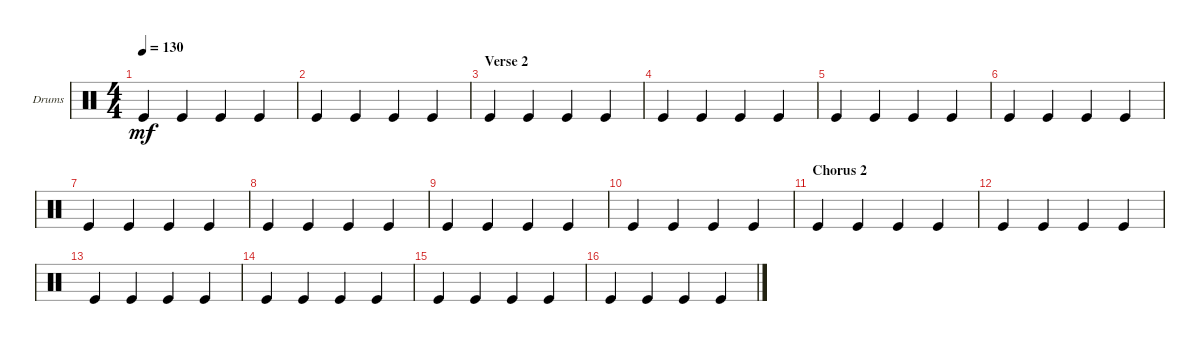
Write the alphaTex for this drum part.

\bracketExtendMode groupsimilarinstruments
\firstSystemTrackNameOrientation horizontal
\otherSystemsTrackNameOrientation horizontal
\chordDiagramsInScore
\track ("Drumkit" "Drums") {instrument percussion}
\staff {score}
\articulation defaults
\ts (4 4)
\tempo 130
\clef neutral
\ks c "Kick (hit)".4{dy mf} "Kick (hit)".4 "Kick (hit)".4 "Kick (hit)".4
|
"Kick (hit)".4 "Kick (hit)".4 "Kick (hit)".4 "Kick (hit)".4 |
\section ("" "Verse 2")
"Kick (hit)".4 "Kick (hit)".4 "Kick (hit)".4 "Kick (hit)".4 |
"Kick (hit)".4 "Kick (hit)".4 "Kick (hit)".4 "Kick (hit)".4 |
"Kick (hit)".4 "Kick (hit)".4 "Kick (hit)".4 "Kick (hit)".4 |
"Kick (hit)".4 "Kick (hit)".4 "Kick (hit)".4 "Kick (hit)".4 |
"Kick (hit)".4 "Kick (hit)".4 "Kick (hit)".4 "Kick (hit)".4 |
"Kick (hit)".4 "Kick (hit)".4 "Kick (hit)".4 "Kick (hit)".4 |
"Kick (hit)".4 "Kick (hit)".4 "Kick (hit)".4 "Kick (hit)".4 |
"Kick (hit)".4 "Kick (hit)".4 "Kick (hit)".4 "Kick (hit)".4 |
\section ("" "Chorus 2")
"Kick (hit)".4 "Kick (hit)".4 "Kick (hit)".4 "Kick (hit)".4 |
"Kick (hit)".4 "Kick (hit)".4 "Kick (hit)".4 "Kick (hit)".4 |
"Kick (hit)".4 "Kick (hit)".4 "Kick (hit)".4 "Kick (hit)".4 |
"Kick (hit)".4 "Kick (hit)".4 "Kick (hit)".4 "Kick (hit)".4 |
"Kick (hit)".4 "Kick (hit)".4 "Kick (hit)".4 "Kick (hit)".4 |
"Kick (hit)".4 "Kick (hit)".4 "Kick (hit)".4 "Kick (hit)".4
